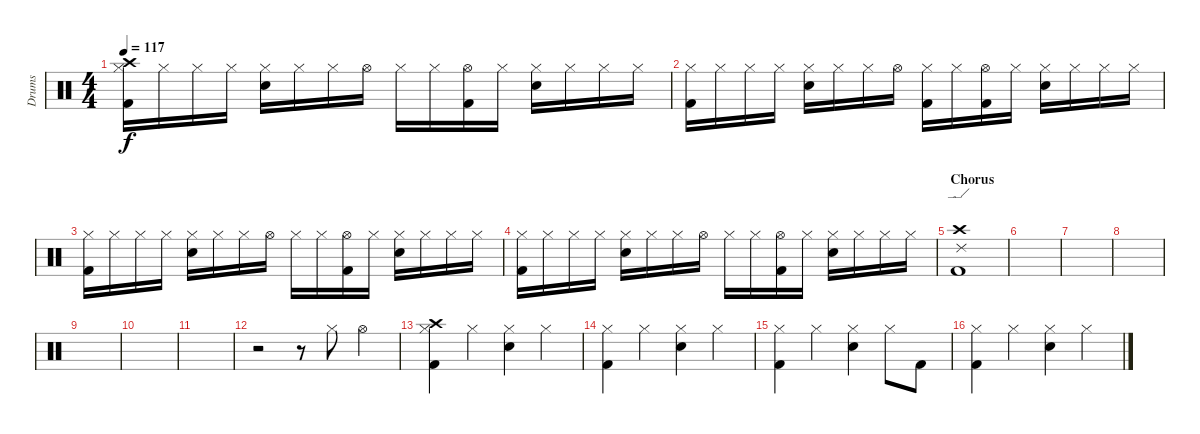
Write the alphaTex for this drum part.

\track ("Drums" "Drums") {instrument percussion}
\staff {score}
\articulation defaults
\ts (4 4)
\tempo 117
\clef neutral
\ks c
("Hi-Hat (closed)" "Kick (hit) 2" "Crash high (hit)").16{dy f} "Hi-Hat (closed)".16 "Hi-Hat (closed)".16 "Hi-Hat (closed)".16 ("Hi-Hat (closed)" "Snare (hit) 2").16 "Hi-Hat (closed)".16 "Hi-Hat (closed)".16 "Hi-Hat (open)".16 "Hi-Hat (closed)".16 "Hi-Hat (closed)".16 ("Hi-Hat (open)" "Kick (hit) 2").16 "Hi-Hat (closed)".16 ("Hi-Hat (closed)" "Snare (hit) 2").16 "Hi-Hat (closed)".16 "Hi-Hat (closed)".16 "Hi-Hat (closed)".16 |
("Hi-Hat (closed)" "Kick (hit) 2").16 "Hi-Hat (closed)".16 "Hi-Hat (closed)".16 "Hi-Hat (closed)".16 ("Hi-Hat (closed)" "Snare (hit) 2").16 "Hi-Hat (closed)".16 "Hi-Hat (closed)".16 "Hi-Hat (open)".16 ("Hi-Hat (closed)" "Kick (hit) 2").16 "Hi-Hat (closed)".16 ("Hi-Hat (open)" "Kick (hit) 2").16 "Hi-Hat (closed)".16 ("Hi-Hat (closed)" "Snare (hit) 2").16 "Hi-Hat (closed)".16 "Hi-Hat (closed)".16 "Hi-Hat (closed)".16 |
("Hi-Hat (closed)" "Kick (hit) 2").16 "Hi-Hat (closed)".16 "Hi-Hat (closed)".16 "Hi-Hat (closed)".16 ("Hi-Hat (closed)" "Snare (hit) 2").16 "Hi-Hat (closed)".16 "Hi-Hat (closed)".16 "Hi-Hat (open)".16 "Hi-Hat (closed)".16 "Hi-Hat (closed)".16 ("Hi-Hat (open)" "Kick (hit) 2").16 "Hi-Hat (closed)".16 ("Hi-Hat (closed)" "Snare (hit) 2").16 "Hi-Hat (closed)".16 "Hi-Hat (closed)".16 "Hi-Hat (closed)".16 |
("Hi-Hat (closed)" "Kick (hit) 2").16 "Hi-Hat (closed)".16 "Hi-Hat (closed)".16 "Hi-Hat (closed)".16 ("Hi-Hat (closed)" "Snare (hit) 2").16 "Hi-Hat (closed)".16 "Hi-Hat (closed)".16 "Hi-Hat (open)".16 "Hi-Hat (closed)".16 "Hi-Hat (closed)".16 ("Hi-Hat (open)" "Kick (hit) 2").16 "Hi-Hat (closed)".16 ("Hi-Hat (closed)" "Snare (hit) 2").16 "Hi-Hat (closed)".16 "Hi-Hat (closed)".16 "Hi-Hat (closed)".16 |
\section ("" "Chorus")
("Kick (hit) 2" "Ride (edge) 2" "Crash high (hit)").1 |
|
|
|
|
|
|
r.2 r.8 "Hi-Hat (closed)".8 "Hi-Hat (open)".4 |
("Kick (hit) 2" "Hi-Hat (closed)" "Crash high (hit)").4 "Hi-Hat (closed)".4 ("Snare (hit) 2" "Hi-Hat (closed)").4 "Hi-Hat (closed)".4 |
("Kick (hit) 2" "Hi-Hat (closed)").4 "Hi-Hat (closed)".4 ("Snare (hit) 2" "Hi-Hat (closed)").4 "Hi-Hat (closed)".4 |
("Kick (hit) 2" "Hi-Hat (closed)").4 "Hi-Hat (closed)".4 ("Snare (hit) 2" "Hi-Hat (closed)").4 "Hi-Hat (closed)".8 "Kick (hit) 2".8 |
("Kick (hit) 2" "Hi-Hat (closed)").4 "Hi-Hat (closed)".4 ("Snare (hit) 2" "Hi-Hat (closed)").4 "Hi-Hat (closed)".4
